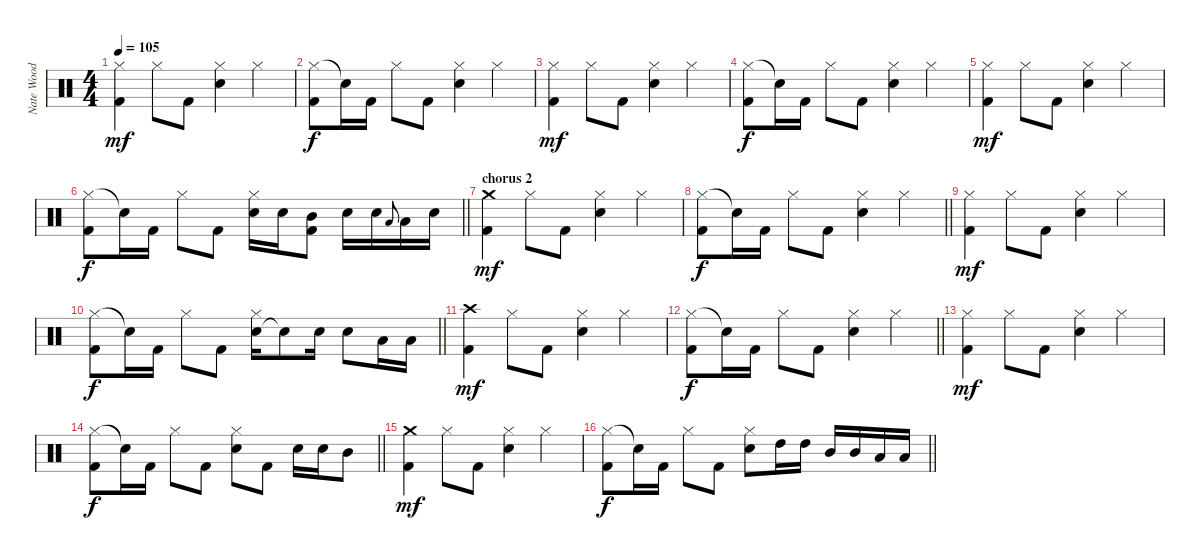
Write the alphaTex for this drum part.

\track ("Nate Wood" "Nate Wood") {instrument percussion}
\staff {score}
\articulation defaults
\ts (4 4)
\tempo 105
\clef neutral
\ks c
("Hi-Hat (closed)" "Kick (hit) 2").4{dy mf} "Hi-Hat (closed)".8 "Kick (hit) 2".8 ("Electric Snare (hit)" "Hi-Hat (closed)").4 "Hi-Hat (closed)".4 |
("Hi-Hat (closed)" "Kick (hit) 2").8{dy f} "Snare (hit)"{t}.16 "Kick (hit) 2".16 "Hi-Hat (closed)".8 "Kick (hit) 2".8 ("Electric Snare (hit)" "Hi-Hat (closed)").4 "Hi-Hat (closed)".4 |
("Hi-Hat (closed)" "Kick (hit) 2").4{dy mf} "Hi-Hat (closed)".8 "Kick (hit) 2".8 ("Electric Snare (hit)" "Hi-Hat (closed)").4 "Hi-Hat (closed)".4 |
("Hi-Hat (closed)" "Kick (hit) 2").8{dy f} "Snare (hit)"{t}.16 "Kick (hit) 2".16 "Hi-Hat (closed)".8 "Kick (hit) 2".8 ("Electric Snare (hit)" "Hi-Hat (closed)").4 "Hi-Hat (closed)".4 |
("Hi-Hat (closed)" "Kick (hit) 2").4{dy mf} "Hi-Hat (closed)".8 "Kick (hit) 2".8 ("Electric Snare (hit)" "Hi-Hat (closed)").4 "Hi-Hat (closed)".4 |
\barLineRight lightlight
("Hi-Hat (closed)" "Kick (hit) 2").8{dy f} "Snare (hit)"{t}.16 "Kick (hit) 2".16 "Hi-Hat (closed)".8 "Kick (hit) 2".8 ("Electric Snare (hit)" "Hi-Hat (closed)").16 "Electric Snare (hit)".16 ("Kick (hit) 2" "Mid Tom (hit)").8 "Electric Snare (hit)".16 "Electric Snare (hit)".16 "Low Tom (hit)".8{gr onbeat} "Low Tom (hit)".16 "Electric Snare (hit)".16 |
\section ("" "chorus 2")
("Crash medium (hit)" "Kick (hit) 2").4{dy mf} "Hi-Hat (closed)".8 "Kick (hit) 2".8 ("Electric Snare (hit)" "Hi-Hat (closed)").4 "Hi-Hat (closed)".4 |
\barLineRight lightlight
("Hi-Hat (closed)" "Kick (hit) 2").8{dy f} "Snare (hit)"{t}.16 "Kick (hit) 2".16 "Hi-Hat (closed)".8 "Kick (hit) 2".8 ("Electric Snare (hit)" "Hi-Hat (closed)").4 "Hi-Hat (closed)".4 |
("Hi-Hat (closed)" "Kick (hit) 2").4{dy mf} "Hi-Hat (closed)".8 "Kick (hit) 2".8 ("Electric Snare (hit)" "Hi-Hat (closed)").4 "Hi-Hat (closed)".4 |
\barLineRight lightlight
("Hi-Hat (closed)" "Kick (hit) 2").8{dy f} "Snare (hit)"{t}.16 "Kick (hit) 2".16 "Hi-Hat (closed)".8 "Kick (hit) 2".8 ("Electric Snare (hit)" "Hi-Hat (closed)").16 "Snare (hit)"{t}.8 "Electric Snare (hit)".16 "Electric Snare (hit)".8 "Low Tom (hit)".16 "Low Tom (hit)".16 |
("Crash high (hit)" "Kick (hit) 2").4{dy mf} "Hi-Hat (closed)".8 "Kick (hit) 2".8 ("Electric Snare (hit)" "Hi-Hat (closed)").4 "Hi-Hat (closed)".4 |
\barLineRight lightlight
("Hi-Hat (closed)" "Kick (hit) 2").8{dy f} "Snare (hit)"{t}.16 "Kick (hit) 2".16 "Hi-Hat (closed)".8 "Kick (hit) 2".8 ("Electric Snare (hit)" "Hi-Hat (closed)").4 "Hi-Hat (closed)".4 |
("Hi-Hat (closed)" "Kick (hit) 2").4{dy mf} "Hi-Hat (closed)".8 "Kick (hit) 2".8 ("Electric Snare (hit)" "Hi-Hat (closed)").4 "Hi-Hat (closed)".4 |
\barLineRight lightlight
("Hi-Hat (closed)" "Kick (hit) 2").8{dy f} "Snare (hit)"{t}.16 "Kick (hit) 2".16 "Hi-Hat (closed)".8 "Kick (hit) 2".8 ("Electric Snare (hit)" "Hi-Hat (closed)").8 "Kick (hit) 2".8 "Electric Snare (hit)".16 "Electric Snare (hit)".16 "Mid Tom (hit)".8 |
("Crash medium (hit)" "Kick (hit) 2").4{dy mf} "Hi-Hat (closed)".8 "Kick (hit) 2".8 ("Electric Snare (hit)" "Hi-Hat (closed)").4 "Hi-Hat (closed)".4 |
\barLineRight lightlight
("Hi-Hat (closed)" "Kick (hit) 2").8{dy f} "Snare (hit)"{t}.16 "Kick (hit) 2".16 "Hi-Hat (closed)".8 "Kick (hit) 2".8 ("Electric Snare (hit)" "Hi-Hat (closed)").8 "High Tom (hit)".16 "High Tom (hit)".16 "Mid Tom (hit)".16 "Mid Tom (hit)".16 "Low Tom (hit)".16 "Low Tom (hit)".16
